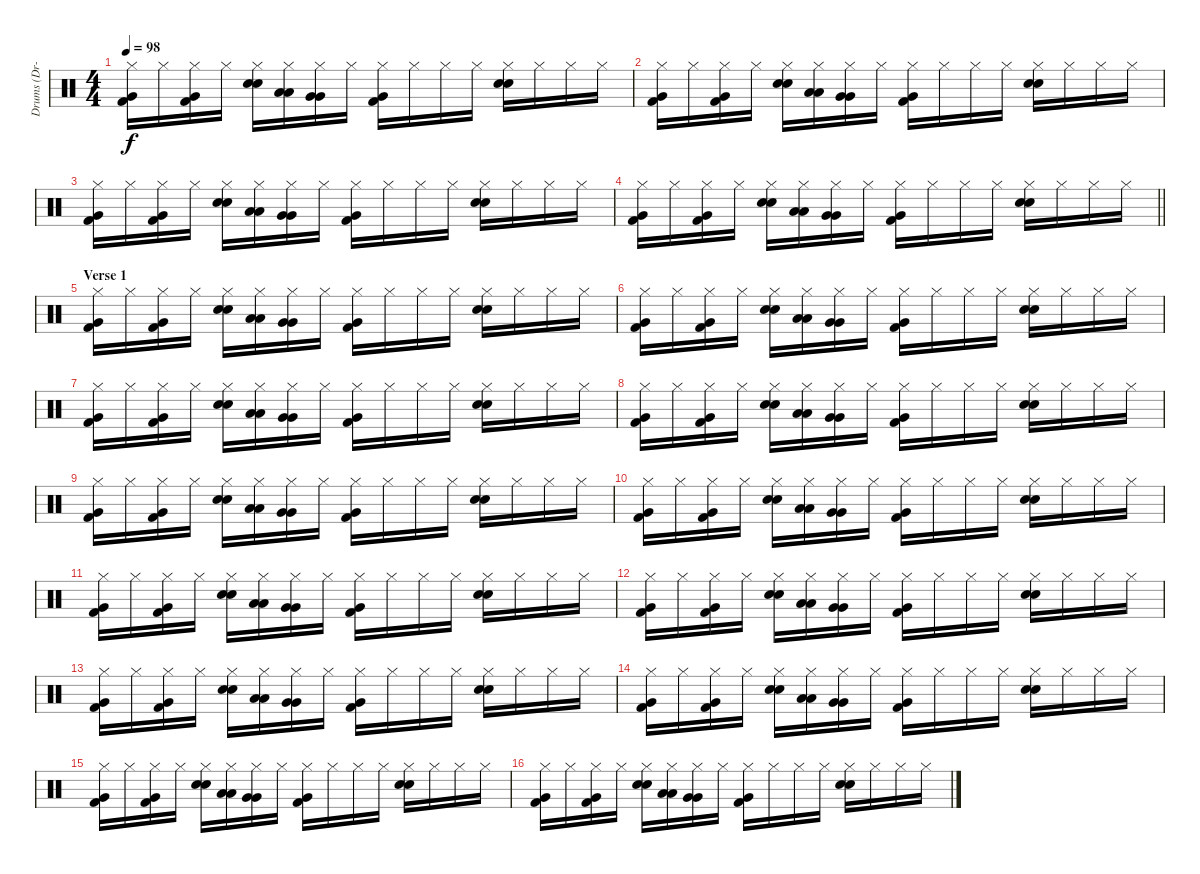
\track ("Drums (Dr-0)" "Drums (Dr-") {instrument percussion}
\staff {score}
\articulation defaults
\ts (4 4)
\tempo 98
\clef neutral
\ks c
("Hi-Hat (closed)" "Very Low Tom (hit)" "Kick (hit) 2").16{dy f} "Hi-Hat (closed)".16 ("Hi-Hat (closed)" "Very Low Tom (hit)" "Kick (hit) 2").16 "Hi-Hat (closed)".16 ("Hi-Hat (closed)" "Electric Snare (hit)" "Snare (hit) 2").16 ("Hi-Hat (closed)" "Low Tom (hit)" "Low Tom (hit)").16 ("Hi-Hat (closed)" "Very Low Tom (hit)" "Very Low Tom (hit)").16 "Hi-Hat (closed)".16 ("Hi-Hat (closed)" "Very Low Tom (hit)" "Kick (hit) 2").16 "Hi-Hat (closed)".16 "Hi-Hat (closed)".16 "Hi-Hat (closed)".16 ("Hi-Hat (closed)" "Electric Snare (hit)" "Snare (hit) 2").16 "Hi-Hat (closed)".16 "Hi-Hat (closed)".16 "Hi-Hat (closed)".16 |
("Hi-Hat (closed)" "Very Low Tom (hit)" "Kick (hit) 2").16 "Hi-Hat (closed)".16 ("Hi-Hat (closed)" "Very Low Tom (hit)" "Kick (hit) 2").16 "Hi-Hat (closed)".16 ("Hi-Hat (closed)" "Electric Snare (hit)" "Snare (hit) 2").16 ("Hi-Hat (closed)" "Low Tom (hit)" "Low Tom (hit)").16 ("Hi-Hat (closed)" "Very Low Tom (hit)" "Very Low Tom (hit)").16 "Hi-Hat (closed)".16 ("Hi-Hat (closed)" "Very Low Tom (hit)" "Kick (hit) 2").16 "Hi-Hat (closed)".16 "Hi-Hat (closed)".16 "Hi-Hat (closed)".16 ("Hi-Hat (closed)" "Electric Snare (hit)" "Snare (hit) 2").16 "Hi-Hat (closed)".16 "Hi-Hat (closed)".16 "Hi-Hat (closed)".16 |
("Hi-Hat (closed)" "Very Low Tom (hit)" "Kick (hit) 2").16 "Hi-Hat (closed)".16 ("Hi-Hat (closed)" "Very Low Tom (hit)" "Kick (hit) 2").16 "Hi-Hat (closed)".16 ("Hi-Hat (closed)" "Electric Snare (hit)" "Snare (hit) 2").16 ("Hi-Hat (closed)" "Low Tom (hit)" "Low Tom (hit)").16 ("Hi-Hat (closed)" "Very Low Tom (hit)" "Very Low Tom (hit)").16 "Hi-Hat (closed)".16 ("Hi-Hat (closed)" "Very Low Tom (hit)" "Kick (hit) 2").16 "Hi-Hat (closed)".16 "Hi-Hat (closed)".16 "Hi-Hat (closed)".16 ("Hi-Hat (closed)" "Electric Snare (hit)" "Snare (hit) 2").16 "Hi-Hat (closed)".16 "Hi-Hat (closed)".16 "Hi-Hat (closed)".16 |
\barLineRight lightlight
("Hi-Hat (closed)" "Very Low Tom (hit)" "Kick (hit) 2").16 "Hi-Hat (closed)".16 ("Hi-Hat (closed)" "Very Low Tom (hit)" "Kick (hit) 2").16 "Hi-Hat (closed)".16 ("Hi-Hat (closed)" "Electric Snare (hit)" "Snare (hit) 2").16 ("Hi-Hat (closed)" "Low Tom (hit)" "Low Tom (hit)").16 ("Hi-Hat (closed)" "Very Low Tom (hit)" "Very Low Tom (hit)").16 "Hi-Hat (closed)".16 ("Hi-Hat (closed)" "Very Low Tom (hit)" "Kick (hit) 2").16 "Hi-Hat (closed)".16 "Hi-Hat (closed)".16 "Hi-Hat (closed)".16 ("Hi-Hat (closed)" "Electric Snare (hit)" "Snare (hit) 2").16 "Hi-Hat (closed)".16 "Hi-Hat (closed)".16 "Hi-Hat (closed)".16 |
\section ("" "Verse 1")
("Hi-Hat (closed)" "Very Low Tom (hit)" "Kick (hit) 2").16 "Hi-Hat (closed)".16 ("Hi-Hat (closed)" "Very Low Tom (hit)" "Kick (hit) 2").16 "Hi-Hat (closed)".16 ("Hi-Hat (closed)" "Electric Snare (hit)" "Snare (hit) 2").16 ("Hi-Hat (closed)" "Low Tom (hit)" "Low Tom (hit)").16 ("Hi-Hat (closed)" "Very Low Tom (hit)" "Very Low Tom (hit)").16 "Hi-Hat (closed)".16 ("Hi-Hat (closed)" "Very Low Tom (hit)" "Kick (hit) 2").16 "Hi-Hat (closed)".16 "Hi-Hat (closed)".16 "Hi-Hat (closed)".16 ("Hi-Hat (closed)" "Electric Snare (hit)" "Snare (hit) 2").16 "Hi-Hat (closed)".16 "Hi-Hat (closed)".16 "Hi-Hat (closed)".16 |
("Hi-Hat (closed)" "Very Low Tom (hit)" "Kick (hit) 2").16 "Hi-Hat (closed)".16 ("Hi-Hat (closed)" "Very Low Tom (hit)" "Kick (hit) 2").16 "Hi-Hat (closed)".16 ("Hi-Hat (closed)" "Electric Snare (hit)" "Snare (hit) 2").16 ("Hi-Hat (closed)" "Low Tom (hit)" "Low Tom (hit)").16 ("Hi-Hat (closed)" "Very Low Tom (hit)" "Very Low Tom (hit)").16 "Hi-Hat (closed)".16 ("Hi-Hat (closed)" "Very Low Tom (hit)" "Kick (hit) 2").16 "Hi-Hat (closed)".16 "Hi-Hat (closed)".16 "Hi-Hat (closed)".16 ("Hi-Hat (closed)" "Electric Snare (hit)" "Snare (hit) 2").16 "Hi-Hat (closed)".16 "Hi-Hat (closed)".16 "Hi-Hat (closed)".16 |
("Hi-Hat (closed)" "Very Low Tom (hit)" "Kick (hit) 2").16 "Hi-Hat (closed)".16 ("Hi-Hat (closed)" "Very Low Tom (hit)" "Kick (hit) 2").16 "Hi-Hat (closed)".16 ("Hi-Hat (closed)" "Electric Snare (hit)" "Snare (hit) 2").16 ("Hi-Hat (closed)" "Low Tom (hit)" "Low Tom (hit)").16 ("Hi-Hat (closed)" "Very Low Tom (hit)" "Very Low Tom (hit)").16 "Hi-Hat (closed)".16 ("Hi-Hat (closed)" "Very Low Tom (hit)" "Kick (hit) 2").16 "Hi-Hat (closed)".16 "Hi-Hat (closed)".16 "Hi-Hat (closed)".16 ("Hi-Hat (closed)" "Electric Snare (hit)" "Snare (hit) 2").16 "Hi-Hat (closed)".16 "Hi-Hat (closed)".16 "Hi-Hat (closed)".16 |
("Hi-Hat (closed)" "Very Low Tom (hit)" "Kick (hit) 2").16 "Hi-Hat (closed)".16 ("Hi-Hat (closed)" "Very Low Tom (hit)" "Kick (hit) 2").16 "Hi-Hat (closed)".16 ("Hi-Hat (closed)" "Electric Snare (hit)" "Snare (hit) 2").16 ("Hi-Hat (closed)" "Low Tom (hit)" "Low Tom (hit)").16 ("Hi-Hat (closed)" "Very Low Tom (hit)" "Very Low Tom (hit)").16 "Hi-Hat (closed)".16 ("Hi-Hat (closed)" "Very Low Tom (hit)" "Kick (hit) 2").16 "Hi-Hat (closed)".16 "Hi-Hat (closed)".16 "Hi-Hat (closed)".16 ("Hi-Hat (closed)" "Electric Snare (hit)" "Snare (hit) 2").16 "Hi-Hat (closed)".16 "Hi-Hat (closed)".16 "Hi-Hat (closed)".16 |
("Hi-Hat (closed)" "Very Low Tom (hit)" "Kick (hit) 2").16 "Hi-Hat (closed)".16 ("Hi-Hat (closed)" "Very Low Tom (hit)" "Kick (hit) 2").16 "Hi-Hat (closed)".16 ("Hi-Hat (closed)" "Electric Snare (hit)" "Snare (hit) 2").16 ("Hi-Hat (closed)" "Low Tom (hit)" "Low Tom (hit)").16 ("Hi-Hat (closed)" "Very Low Tom (hit)" "Very Low Tom (hit)").16 "Hi-Hat (closed)".16 ("Hi-Hat (closed)" "Very Low Tom (hit)" "Kick (hit) 2").16 "Hi-Hat (closed)".16 "Hi-Hat (closed)".16 "Hi-Hat (closed)".16 ("Hi-Hat (closed)" "Electric Snare (hit)" "Snare (hit) 2").16 "Hi-Hat (closed)".16 "Hi-Hat (closed)".16 "Hi-Hat (closed)".16 |
("Hi-Hat (closed)" "Very Low Tom (hit)" "Kick (hit) 2").16 "Hi-Hat (closed)".16 ("Hi-Hat (closed)" "Very Low Tom (hit)" "Kick (hit) 2").16 "Hi-Hat (closed)".16 ("Hi-Hat (closed)" "Electric Snare (hit)" "Snare (hit) 2").16 ("Hi-Hat (closed)" "Low Tom (hit)" "Low Tom (hit)").16 ("Hi-Hat (closed)" "Very Low Tom (hit)" "Very Low Tom (hit)").16 "Hi-Hat (closed)".16 ("Hi-Hat (closed)" "Very Low Tom (hit)" "Kick (hit) 2").16 "Hi-Hat (closed)".16 "Hi-Hat (closed)".16 "Hi-Hat (closed)".16 ("Hi-Hat (closed)" "Electric Snare (hit)" "Snare (hit) 2").16 "Hi-Hat (closed)".16 "Hi-Hat (closed)".16 "Hi-Hat (closed)".16 |
("Hi-Hat (closed)" "Very Low Tom (hit)" "Kick (hit) 2").16 "Hi-Hat (closed)".16 ("Hi-Hat (closed)" "Very Low Tom (hit)" "Kick (hit) 2").16 "Hi-Hat (closed)".16 ("Hi-Hat (closed)" "Electric Snare (hit)" "Snare (hit) 2").16 ("Hi-Hat (closed)" "Low Tom (hit)" "Low Tom (hit)").16 ("Hi-Hat (closed)" "Very Low Tom (hit)" "Very Low Tom (hit)").16 "Hi-Hat (closed)".16 ("Hi-Hat (closed)" "Very Low Tom (hit)" "Kick (hit) 2").16 "Hi-Hat (closed)".16 "Hi-Hat (closed)".16 "Hi-Hat (closed)".16 ("Hi-Hat (closed)" "Electric Snare (hit)" "Snare (hit) 2").16 "Hi-Hat (closed)".16 "Hi-Hat (closed)".16 "Hi-Hat (closed)".16 |
("Hi-Hat (closed)" "Very Low Tom (hit)" "Kick (hit) 2").16 "Hi-Hat (closed)".16 ("Hi-Hat (closed)" "Very Low Tom (hit)" "Kick (hit) 2").16 "Hi-Hat (closed)".16 ("Hi-Hat (closed)" "Electric Snare (hit)" "Snare (hit) 2").16 ("Hi-Hat (closed)" "Low Tom (hit)" "Low Tom (hit)").16 ("Hi-Hat (closed)" "Very Low Tom (hit)" "Very Low Tom (hit)").16 "Hi-Hat (closed)".16 ("Hi-Hat (closed)" "Very Low Tom (hit)" "Kick (hit) 2").16 "Hi-Hat (closed)".16 "Hi-Hat (closed)".16 "Hi-Hat (closed)".16 ("Hi-Hat (closed)" "Electric Snare (hit)" "Snare (hit) 2").16 "Hi-Hat (closed)".16 "Hi-Hat (closed)".16 "Hi-Hat (closed)".16 |
("Hi-Hat (closed)" "Very Low Tom (hit)" "Kick (hit) 2").16 "Hi-Hat (closed)".16 ("Hi-Hat (closed)" "Very Low Tom (hit)" "Kick (hit) 2").16 "Hi-Hat (closed)".16 ("Hi-Hat (closed)" "Electric Snare (hit)" "Snare (hit) 2").16 ("Hi-Hat (closed)" "Low Tom (hit)" "Low Tom (hit)").16 ("Hi-Hat (closed)" "Very Low Tom (hit)" "Very Low Tom (hit)").16 "Hi-Hat (closed)".16 ("Hi-Hat (closed)" "Very Low Tom (hit)" "Kick (hit) 2").16 "Hi-Hat (closed)".16 "Hi-Hat (closed)".16 "Hi-Hat (closed)".16 ("Hi-Hat (closed)" "Electric Snare (hit)" "Snare (hit) 2").16 "Hi-Hat (closed)".16 "Hi-Hat (closed)".16 "Hi-Hat (closed)".16 |
("Hi-Hat (closed)" "Very Low Tom (hit)" "Kick (hit) 2").16 "Hi-Hat (closed)".16 ("Hi-Hat (closed)" "Very Low Tom (hit)" "Kick (hit) 2").16 "Hi-Hat (closed)".16 ("Hi-Hat (closed)" "Electric Snare (hit)" "Snare (hit) 2").16 ("Hi-Hat (closed)" "Low Tom (hit)" "Low Tom (hit)").16 ("Hi-Hat (closed)" "Very Low Tom (hit)" "Very Low Tom (hit)").16 "Hi-Hat (closed)".16 ("Hi-Hat (closed)" "Very Low Tom (hit)" "Kick (hit) 2").16 "Hi-Hat (closed)".16 "Hi-Hat (closed)".16 "Hi-Hat (closed)".16 ("Hi-Hat (closed)" "Electric Snare (hit)" "Snare (hit) 2").16 "Hi-Hat (closed)".16 "Hi-Hat (closed)".16 "Hi-Hat (closed)".16 |
("Hi-Hat (closed)" "Very Low Tom (hit)" "Kick (hit) 2").16 "Hi-Hat (closed)".16 ("Hi-Hat (closed)" "Very Low Tom (hit)" "Kick (hit) 2").16 "Hi-Hat (closed)".16 ("Hi-Hat (closed)" "Electric Snare (hit)" "Snare (hit) 2").16 ("Hi-Hat (closed)" "Low Tom (hit)" "Low Tom (hit)").16 ("Hi-Hat (closed)" "Very Low Tom (hit)" "Very Low Tom (hit)").16 "Hi-Hat (closed)".16 ("Hi-Hat (closed)" "Very Low Tom (hit)" "Kick (hit) 2").16 "Hi-Hat (closed)".16 "Hi-Hat (closed)".16 "Hi-Hat (closed)".16 ("Hi-Hat (closed)" "Electric Snare (hit)" "Snare (hit) 2").16 "Hi-Hat (closed)".16 "Hi-Hat (closed)".16 "Hi-Hat (closed)".16 |
("Hi-Hat (closed)" "Very Low Tom (hit)" "Kick (hit) 2").16 "Hi-Hat (closed)".16 ("Hi-Hat (closed)" "Very Low Tom (hit)" "Kick (hit) 2").16 "Hi-Hat (closed)".16 ("Hi-Hat (closed)" "Electric Snare (hit)" "Snare (hit) 2").16 ("Hi-Hat (closed)" "Low Tom (hit)" "Low Tom (hit)").16 ("Hi-Hat (closed)" "Very Low Tom (hit)" "Very Low Tom (hit)").16 "Hi-Hat (closed)".16 ("Hi-Hat (closed)" "Very Low Tom (hit)" "Kick (hit) 2").16 "Hi-Hat (closed)".16 "Hi-Hat (closed)".16 "Hi-Hat (closed)".16 ("Hi-Hat (closed)" "Electric Snare (hit)" "Snare (hit) 2").16 "Hi-Hat (closed)".16 "Hi-Hat (closed)".16 "Hi-Hat (closed)".16
